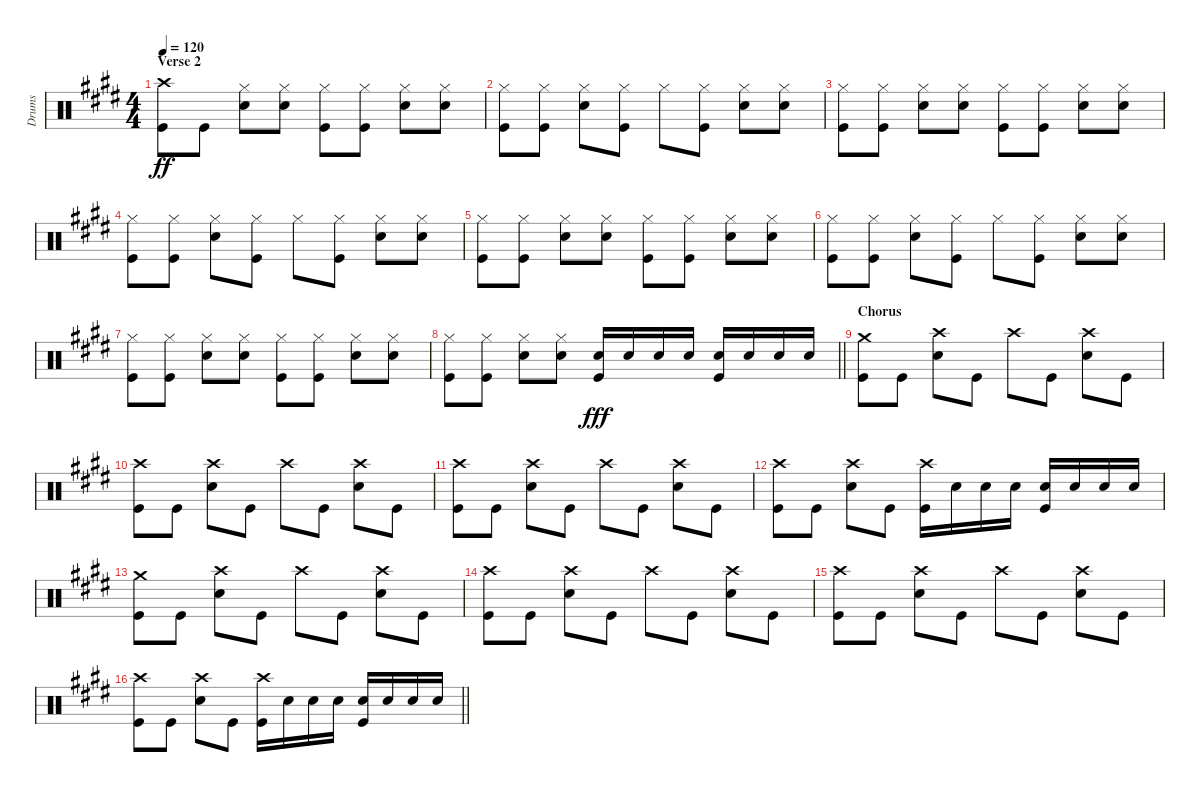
\track ("Drums" "Drums") {instrument percussion}
\staff {score}
\articulation defaults
\ts (4 4)
\section ("" "Verse 2")
\tempo 120
\clef neutral
\ks e
("Crash high (hit)" "Kick (hit)").8{dy ff} "Kick (hit)".8 ("Hi-Hat (closed)" "Snare (hit) 2").8 ("Hi-Hat (closed)" "Snare (hit) 2").8 ("Hi-Hat (closed)" "Kick (hit)").8 ("Hi-Hat (closed)" "Kick (hit)").8 ("Hi-Hat (closed)" "Snare (hit) 2").8 ("Hi-Hat (closed)" "Snare (hit) 2").8 |
("Hi-Hat (closed)" "Kick (hit)").8 ("Hi-Hat (closed)" "Kick (hit)").8 ("Hi-Hat (closed)" "Snare (hit) 2").8 ("Hi-Hat (closed)" "Kick (hit)").8 "Hi-Hat (closed)".8 ("Hi-Hat (closed)" "Kick (hit)").8 ("Hi-Hat (closed)" "Snare (hit) 2").8 ("Hi-Hat (closed)" "Snare (hit) 2").8 |
("Hi-Hat (closed)" "Kick (hit)").8 ("Hi-Hat (closed)" "Kick (hit)").8 ("Hi-Hat (closed)" "Snare (hit) 2").8 ("Hi-Hat (closed)" "Snare (hit) 2").8 ("Hi-Hat (closed)" "Kick (hit)").8 ("Hi-Hat (closed)" "Kick (hit)").8 ("Hi-Hat (closed)" "Snare (hit) 2").8 ("Hi-Hat (closed)" "Snare (hit) 2").8 |
("Hi-Hat (closed)" "Kick (hit)").8 ("Hi-Hat (closed)" "Kick (hit)").8 ("Hi-Hat (closed)" "Snare (hit) 2").8 ("Hi-Hat (closed)" "Kick (hit)").8 "Hi-Hat (closed)".8 ("Hi-Hat (closed)" "Kick (hit)").8 ("Hi-Hat (closed)" "Snare (hit) 2").8 ("Hi-Hat (closed)" "Snare (hit) 2").8 |
("Hi-Hat (closed)" "Kick (hit)").8 ("Hi-Hat (closed)" "Kick (hit)").8 ("Hi-Hat (closed)" "Snare (hit) 2").8 ("Hi-Hat (closed)" "Snare (hit) 2").8 ("Hi-Hat (closed)" "Kick (hit)").8 ("Hi-Hat (closed)" "Kick (hit)").8 ("Hi-Hat (closed)" "Snare (hit) 2").8 ("Hi-Hat (closed)" "Snare (hit) 2").8 |
("Hi-Hat (closed)" "Kick (hit)").8 ("Hi-Hat (closed)" "Kick (hit)").8 ("Hi-Hat (closed)" "Snare (hit) 2").8 ("Hi-Hat (closed)" "Kick (hit)").8 "Hi-Hat (closed)".8 ("Hi-Hat (closed)" "Kick (hit)").8 ("Hi-Hat (closed)" "Snare (hit) 2").8 ("Hi-Hat (closed)" "Snare (hit) 2").8 |
("Hi-Hat (closed)" "Kick (hit)").8 ("Hi-Hat (closed)" "Kick (hit)").8 ("Hi-Hat (closed)" "Snare (hit) 2").8 ("Hi-Hat (closed)" "Snare (hit) 2").8 ("Hi-Hat (closed)" "Kick (hit)").8 ("Hi-Hat (closed)" "Kick (hit)").8 ("Hi-Hat (closed)" "Snare (hit) 2").8 ("Hi-Hat (closed)" "Snare (hit) 2").8 |
\barLineRight lightlight
("Hi-Hat (closed)" "Kick (hit)").8 ("Hi-Hat (closed)" "Kick (hit)").8 ("Hi-Hat (closed)" "Snare (hit) 2").8 ("Hi-Hat (closed)" "Snare (hit) 2").8 ("Snare (hit) 2" "Kick (hit)").16{dy fff} "Snare (hit) 2".16 "Snare (hit) 2".16 "Snare (hit) 2".16 ("Snare (hit) 2" "Kick (hit)").16 "Snare (hit) 2".16 "Snare (hit) 2".16 "Snare (hit) 2".16 |
\section ("" "Chorus")
("Crash medium (hit)" "Kick (hit)").8 "Kick (hit)".8 ("Crash high (hit)" "Snare (hit) 2").8 "Kick (hit)".8 "Crash high (hit)".8 "Kick (hit)".8 ("Crash high (hit)" "Snare (hit) 2").8 "Kick (hit)".8 |
("Crash high (hit)" "Kick (hit)").8 "Kick (hit)".8 ("Crash high (hit)" "Snare (hit) 2").8 "Kick (hit)".8 "Crash high (hit)".8 "Kick (hit)".8 ("Crash high (hit)" "Snare (hit) 2").8 "Kick (hit)".8 |
("Crash high (hit)" "Kick (hit)").8 "Kick (hit)".8 ("Crash high (hit)" "Snare (hit) 2").8 "Kick (hit)".8 "Crash high (hit)".8 "Kick (hit)".8 ("Crash high (hit)" "Snare (hit) 2").8 "Kick (hit)".8 |
("Crash high (hit)" "Kick (hit)").8 "Kick (hit)".8 ("Crash high (hit)" "Snare (hit) 2").8 "Kick (hit)".8 ("Crash high (hit)" "Kick (hit)").16 "Snare (hit) 2".16 "Snare (hit) 2".16 "Snare (hit) 2".16 ("Snare (hit) 2" "Kick (hit)").16 "Snare (hit) 2".16 "Snare (hit) 2".16 "Snare (hit) 2".16 |
("Crash medium (hit)" "Kick (hit)").8 "Kick (hit)".8 ("Crash high (hit)" "Snare (hit) 2").8 "Kick (hit)".8 "Crash high (hit)".8 "Kick (hit)".8 ("Crash high (hit)" "Snare (hit) 2").8 "Kick (hit)".8 |
("Crash high (hit)" "Kick (hit)").8 "Kick (hit)".8 ("Crash high (hit)" "Snare (hit) 2").8 "Kick (hit)".8 "Crash high (hit)".8 "Kick (hit)".8 ("Crash high (hit)" "Snare (hit) 2").8 "Kick (hit)".8 |
("Crash high (hit)" "Kick (hit)").8 "Kick (hit)".8 ("Crash high (hit)" "Snare (hit) 2").8 "Kick (hit)".8 "Crash high (hit)".8 "Kick (hit)".8 ("Crash high (hit)" "Snare (hit) 2").8 "Kick (hit)".8 |
\barLineRight lightlight
("Crash high (hit)" "Kick (hit)").8 "Kick (hit)".8 ("Crash high (hit)" "Snare (hit) 2").8 "Kick (hit)".8 ("Crash high (hit)" "Kick (hit)").16 "Snare (hit) 2".16 "Snare (hit) 2".16 "Snare (hit) 2".16 ("Snare (hit) 2" "Kick (hit)").16 "Snare (hit) 2".16 "Snare (hit) 2".16 "Snare (hit) 2".16
